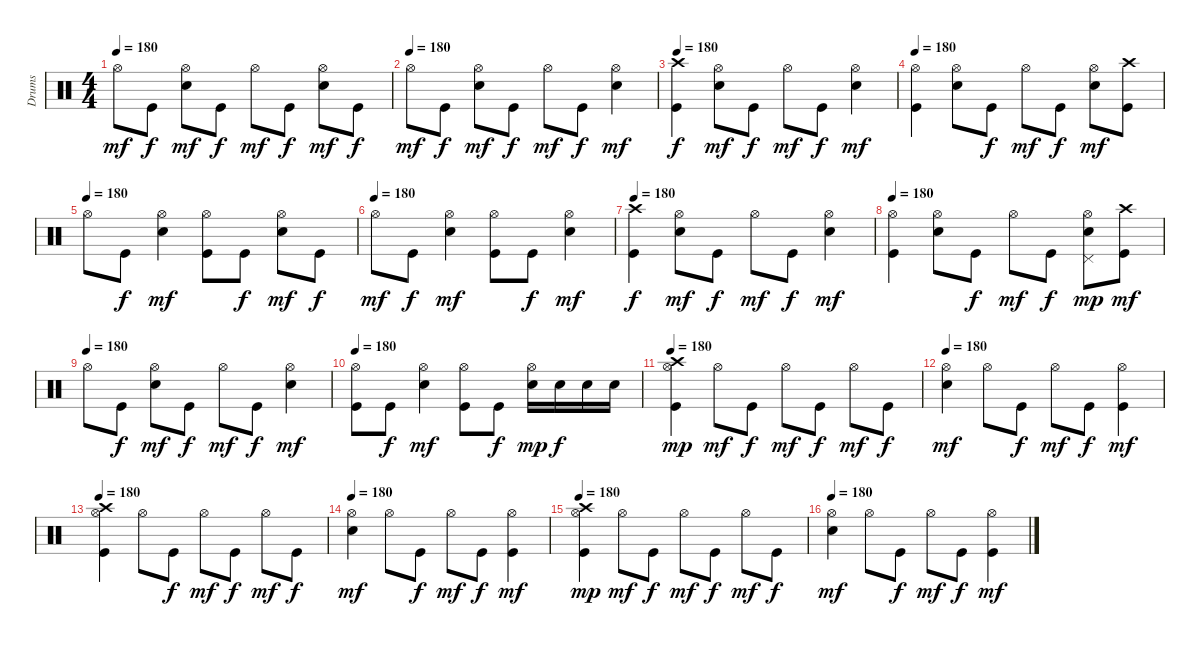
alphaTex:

\track ("Drums" "Drums") {instrument percussion}
\staff {score}
\articulation defaults
\ts (4 4)
\tempo 180
\clef neutral
\ks c "Hi-Hat (open)".8{dy mf} "Kick (hit)".8{dy f}
("Electric Snare (hit)" "Hi-Hat (open)").8{dy mf} "Kick (hit)".8{dy f} "Hi-Hat (open)".8{dy mf} "Kick (hit)".8{dy f} ("Electric Snare (hit)" "Hi-Hat (open)").8{dy mf} "Kick (hit)".8{dy f} |
\tempo (180)
"Hi-Hat (open)".8{dy mf} "Kick (hit)".8{dy f} ("Electric Snare (hit)" "Hi-Hat (open)").8{dy mf} "Kick (hit)".8{dy f} "Hi-Hat (open)".8{dy mf} "Kick (hit)".8{dy f} ("Electric Snare (hit)" "Hi-Hat (open)").4{dy mf} |
\tempo 180
("Kick (hit)" "Crash high (hit)").4{dy f} ("Electric Snare (hit)" "Hi-Hat (open)").8{dy mf} "Kick (hit)".8{dy f} "Hi-Hat (open)".8{dy mf} "Kick (hit)".8{dy f} ("Electric Snare (hit)" "Hi-Hat (open)").4{dy mf} |
\tempo 180
("Kick (hit)" "Hi-Hat (open)").4 ("Electric Snare (hit)" "Hi-Hat (open)").8 "Kick (hit)".8{dy f} "Hi-Hat (open)".8{dy mf} "Kick (hit)".8{dy f} ("Electric Snare (hit)" "Hi-Hat (open)").8{dy mf} ("Kick (hit)" "Crash high (hit)").8 |
\tempo (180)
"Hi-Hat (open)".8 "Kick (hit)".8{dy f} ("Electric Snare (hit)" "Hi-Hat (open)").4{dy mf} ("Kick (hit)" "Hi-Hat (open)").8 "Kick (hit)".8{dy f} ("Electric Snare (hit)" "Hi-Hat (open)").8{dy mf} "Kick (hit)".8{dy f} |
\tempo (180)
"Hi-Hat (open)".8{dy mf} "Kick (hit)".8{dy f} ("Electric Snare (hit)" "Hi-Hat (open)").4{dy mf} ("Kick (hit)" "Hi-Hat (open)").8 "Kick (hit)".8{dy f} ("Electric Snare (hit)" "Hi-Hat (open)").4{dy mf} |
\tempo 180
("Kick (hit)" "Crash high (hit)").4{dy f} ("Electric Snare (hit)" "Hi-Hat (open)").8{dy mf} "Kick (hit)".8{dy f} "Hi-Hat (open)".8{dy mf} "Kick (hit)".8{dy f} ("Electric Snare (hit)" "Hi-Hat (open)").4{dy mf} |
\tempo 180
("Kick (hit)" "Hi-Hat (open)").4 ("Electric Snare (hit)" "Hi-Hat (open)").8 "Kick (hit)".8{dy f} "Hi-Hat (open)".8{dy mf} "Kick (hit)".8{dy f} ("Electric Snare (hit)" "Hi-Hat (open)" "Pedal Hi-Hat (hit)").8{dy mp} ("Kick (hit)" "Crash high (hit)").8{dy mf} |
\tempo (180)
"Hi-Hat (open)".8 "Kick (hit)".8{dy f} ("Electric Snare (hit)" "Hi-Hat (open)").8{dy mf} "Kick (hit)".8{dy f} "Hi-Hat (open)".8{dy mf} "Kick (hit)".8{dy f} ("Electric Snare (hit)" "Hi-Hat (open)").4{dy mf} |
\tempo 180
("Kick (hit)" "Hi-Hat (open)").8 "Kick (hit)".8{dy f} ("Electric Snare (hit)" "Hi-Hat (open)").4{dy mf} ("Kick (hit)" "Hi-Hat (open)").8 "Kick (hit)".8{dy f} ("Electric Snare (hit)" "Hi-Hat (open)").16{dy mp} "Electric Snare (hit)".16{dy f} "Electric Snare (hit)".16 "Electric Snare (hit)".16 |
\tempo 180
("Kick (hit)" "Hi-Hat (open)" "Crash high (hit)").4{dy mp} "Hi-Hat (open)".8{dy mf} "Kick (hit)".8{dy f} "Hi-Hat (open)".8{dy mf} "Kick (hit)".8{dy f} "Hi-Hat (open)".8{dy mf} "Kick (hit)".8{dy f} |
\tempo 180
("Electric Snare (hit)" "Hi-Hat (open)").4{dy mf} "Hi-Hat (open)".8 "Kick (hit)".8{dy f} "Hi-Hat (open)".8{dy mf} "Kick (hit)".8{dy f} ("Kick (hit)" "Hi-Hat (open)").4{dy mf} |
\tempo 180
("Kick (hit)" "Hi-Hat (open)" "Crash high (hit)").4 "Hi-Hat (open)".8 "Kick (hit)".8{dy f} "Hi-Hat (open)".8{dy mf} "Kick (hit)".8{dy f} "Hi-Hat (open)".8{dy mf} "Kick (hit)".8{dy f} |
\tempo 180
("Electric Snare (hit)" "Hi-Hat (open)").4{dy mf} "Hi-Hat (open)".8 "Kick (hit)".8{dy f} "Hi-Hat (open)".8{dy mf} "Kick (hit)".8{dy f} ("Kick (hit)" "Hi-Hat (open)").4{dy mf} |
\tempo 180
("Kick (hit)" "Hi-Hat (open)" "Crash high (hit)").4{dy mp} "Hi-Hat (open)".8{dy mf} "Kick (hit)".8{dy f} "Hi-Hat (open)".8{dy mf} "Kick (hit)".8{dy f} "Hi-Hat (open)".8{dy mf} "Kick (hit)".8{dy f} |
\tempo 180
("Electric Snare (hit)" "Hi-Hat (open)").4{dy mf} "Hi-Hat (open)".8 "Kick (hit)".8{dy f} "Hi-Hat (open)".8{dy mf} "Kick (hit)".8{dy f} ("Kick (hit)" "Hi-Hat (open)").4{dy mf}
